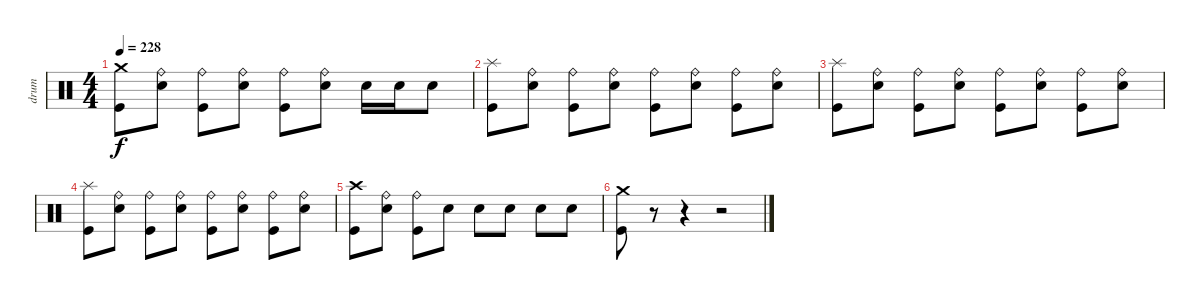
\track ("drum" "drum") {instrument percussion}
\staff {score}
\articulation defaults
\ts (4 4)
\tempo 228
\clef neutral
\ks c
("Kick (hit)" "Crash medium (hit)").8{dy f} ("Electric Snare (hit)" "Ride (bell)").8 ("Kick (hit)" "Ride (bell)").8 ("Electric Snare (hit)" "Ride (bell)").8 ("Kick (hit)" "Ride (bell)").8 ("Electric Snare (hit)" "Ride (bell)").8 "Electric Snare (hit)".16 "Electric Snare (hit)".16 "Electric Snare (hit)".8 |
("Kick (hit)" "Splash (hit)").8 ("Electric Snare (hit)" "Ride (bell)").8 ("Kick (hit)" "Ride (bell)").8 ("Electric Snare (hit)" "Ride (bell)").8 ("Kick (hit)" "Ride (bell)").8 ("Electric Snare (hit)" "Ride (bell)").8 ("Kick (hit)" "Ride (bell)").8 ("Electric Snare (hit)" "Ride (bell)").8 |
("Kick (hit)" "Splash (hit)").8 ("Electric Snare (hit)" "Ride (bell)").8 ("Kick (hit)" "Ride (bell)").8 ("Electric Snare (hit)" "Ride (bell)").8 ("Kick (hit)" "Ride (bell)").8 ("Electric Snare (hit)" "Ride (bell)").8 ("Kick (hit)" "Ride (bell)").8 ("Electric Snare (hit)" "Ride (bell)").8 |
("Kick (hit)" "Splash (hit)").8 ("Electric Snare (hit)" "Ride (bell)").8 ("Kick (hit)" "Ride (bell)").8 ("Electric Snare (hit)" "Ride (bell)").8 ("Kick (hit)" "Ride (bell)").8 ("Electric Snare (hit)" "Ride (bell)").8 ("Kick (hit)" "Ride (bell)").8 ("Electric Snare (hit)" "Ride (bell)").8 |
("Kick (hit)" "Crash high (hit)").8 ("Electric Snare (hit)" "Ride (bell)").8 ("Kick (hit)" "Ride (bell)").8 "Electric Snare (hit)".8 "Electric Snare (hit)".8 "Electric Snare (hit)".8 "Electric Snare (hit)".8 "Electric Snare (hit)".8 |
("Kick (hit)" "Crash medium (hit)").8 r.8 r.4 r.2
